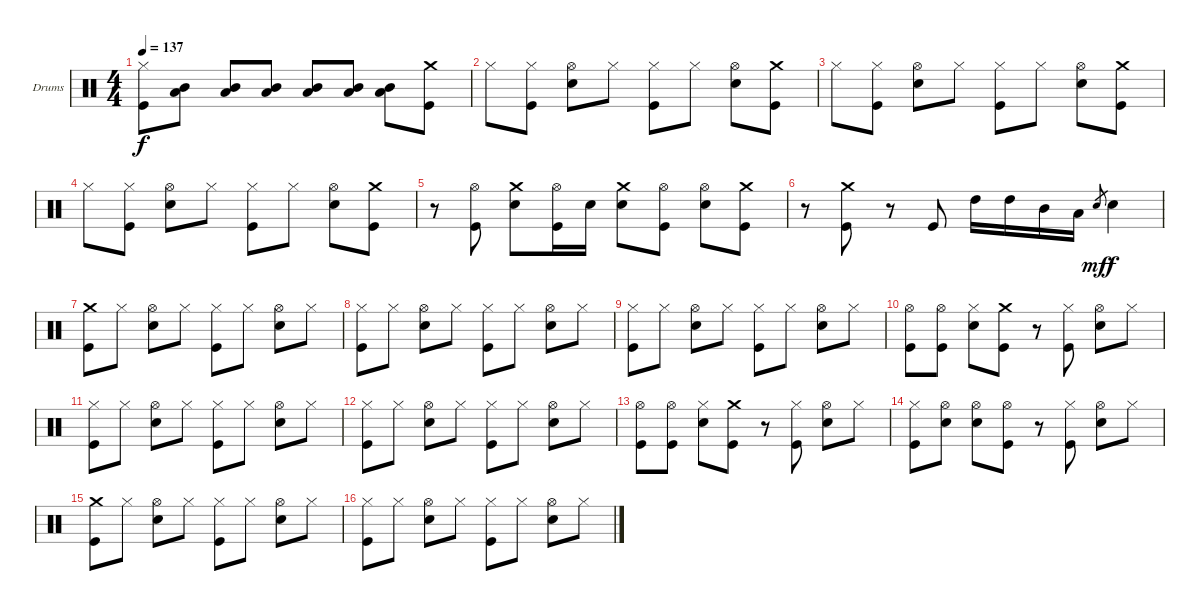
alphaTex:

\defaultSystemsLayout 4
\bracketExtendMode nobrackets
\firstSystemTrackNameOrientation horizontal
\otherSystemsTrackNameOrientation horizontal
\track ("Ударные" "Drums") {instrument percussion}
\staff {score}
\articulation defaults
\ts (4 4)
\tempo 137
\clef neutral
\ks c
("Hi-Hat (closed)" "Kick (hit)").8{dy f} ("Mid Tom (hit)" "Low Tom (hit)").8 ("Mid Tom (hit)" "Low Tom (hit)").8 ("Mid Tom (hit)" "Low Tom (hit)").8 ("Mid Tom (hit)" "Low Tom (hit)").8 ("Mid Tom (hit)" "Low Tom (hit)").8 ("Mid Tom (hit)" "Low Tom (hit)").8 ("Crash medium (hit)" "Kick (hit)").8 |
"Hi-Hat (closed)".8 ("Hi-Hat (closed)" "Kick (hit)").8 ("Hi-Hat (open)" "Snare (hit) 2").8 "Hi-Hat (closed)".8 ("Hi-Hat (closed)" "Kick (hit)").8 "Hi-Hat (closed)".8 ("Hi-Hat (open)" "Snare (hit) 2").8 ("Crash medium (hit)" "Kick (hit)").8 |
"Hi-Hat (closed)".8 ("Hi-Hat (closed)" "Kick (hit)").8 ("Hi-Hat (open)" "Snare (hit) 2").8 "Hi-Hat (closed)".8 ("Hi-Hat (closed)" "Kick (hit)").8 "Hi-Hat (closed)".8 ("Hi-Hat (open)" "Snare (hit) 2").8 ("Crash medium (hit)" "Kick (hit)").8 |
"Hi-Hat (closed)".8 ("Hi-Hat (closed)" "Kick (hit)").8 ("Hi-Hat (open)" "Snare (hit) 2").8 "Hi-Hat (closed)".8 ("Hi-Hat (closed)" "Kick (hit)").8 "Hi-Hat (closed)".8 ("Hi-Hat (open)" "Snare (hit) 2").8 ("Crash medium (hit)" "Kick (hit)").8 |
r.8 ("Hi-Hat (open)" "Kick (hit)").8 ("Crash medium (hit)" "Snare (hit) 2").8 ("Hi-Hat (open)" "Kick (hit)").16 "Snare (hit) 2".16 ("Crash medium (hit)" "Snare (hit) 2").8 ("Hi-Hat (open)" "Kick (hit)").8 ("Hi-Hat (open)" "Snare (hit) 2").8 ("Crash medium (hit)" "Kick (hit)").8 |
r.8 ("Crash medium (hit)" "Kick (hit)").8 r.8 "Kick (hit)".8 "High Tom (hit)".16 "High Tom (hit)".16 "Mid Tom (hit)".16 "Low Tom (hit)".16 "Snare (hit) 2".8{gr dy mf} "Snare (hit) 2".4{dy f} |
("Crash medium (hit)" "Kick (hit)").8 "Hi-Hat (closed)".8 ("Hi-Hat (open)" "Snare (hit) 2").8 "Hi-Hat (closed)".8 ("Hi-Hat (closed)" "Kick (hit)").8 "Hi-Hat (closed)".8 ("Hi-Hat (open)" "Snare (hit) 2").8 "Hi-Hat (closed)".8 |
("Hi-Hat (closed)" "Kick (hit)").8 "Hi-Hat (closed)".8 ("Hi-Hat (open)" "Snare (hit) 2").8 "Hi-Hat (closed)".8 ("Hi-Hat (closed)" "Kick (hit)").8 "Hi-Hat (closed)".8 ("Hi-Hat (open)" "Snare (hit) 2").8 "Hi-Hat (closed)".8 |
("Hi-Hat (closed)" "Kick (hit)").8 "Hi-Hat (closed)".8 ("Hi-Hat (open)" "Snare (hit) 2").8 "Hi-Hat (closed)".8 ("Hi-Hat (closed)" "Kick (hit)").8 "Hi-Hat (closed)".8 ("Hi-Hat (open)" "Snare (hit) 2").8 "Hi-Hat (closed)".8 |
("Hi-Hat (open)" "Kick (hit)").8 ("Hi-Hat (open)" "Kick (hit)").8 ("Hi-Hat (closed)" "Snare (hit) 2").8 ("Crash medium (hit)" "Kick (hit)").8 r.8 ("Hi-Hat (closed)" "Kick (hit)").8 ("Hi-Hat (open)" "Snare (hit) 2").8 "Hi-Hat (closed)".8 |
("Hi-Hat (closed)" "Kick (hit)").8 "Hi-Hat (closed)".8 ("Hi-Hat (open)" "Snare (hit) 2").8 "Hi-Hat (closed)".8 ("Hi-Hat (closed)" "Kick (hit)").8 "Hi-Hat (closed)".8 ("Hi-Hat (open)" "Snare (hit) 2").8 "Hi-Hat (closed)".8 |
("Hi-Hat (closed)" "Kick (hit)").8 "Hi-Hat (closed)".8 ("Hi-Hat (open)" "Snare (hit) 2").8 "Hi-Hat (closed)".8 ("Hi-Hat (closed)" "Kick (hit)").8 "Hi-Hat (closed)".8 ("Hi-Hat (open)" "Snare (hit) 2").8 "Hi-Hat (closed)".8 |
("Hi-Hat (open)" "Kick (hit)").8 ("Hi-Hat (open)" "Kick (hit)").8 ("Hi-Hat (closed)" "Snare (hit) 2").8 ("Crash medium (hit)" "Kick (hit)").8 r.8 ("Hi-Hat (closed)" "Kick (hit)").8 ("Hi-Hat (open)" "Snare (hit) 2").8 "Hi-Hat (closed)".8 |
("Hi-Hat (closed)" "Kick (hit)").8 ("Hi-Hat (open)" "Snare (hit) 2").8 ("Hi-Hat (open)" "Snare (hit) 2").8 ("Hi-Hat (open)" "Kick (hit)").8 r.8 ("Hi-Hat (closed)" "Kick (hit)").8 ("Hi-Hat (open)" "Snare (hit) 2").8 "Hi-Hat (closed)".8 |
("Crash medium (hit)" "Kick (hit)").8 "Hi-Hat (closed)".8 ("Hi-Hat (open)" "Snare (hit) 2").8 "Hi-Hat (closed)".8 ("Hi-Hat (closed)" "Kick (hit)").8 "Hi-Hat (closed)".8 ("Hi-Hat (open)" "Snare (hit) 2").8 "Hi-Hat (closed)".8 |
("Hi-Hat (closed)" "Kick (hit)").8 "Hi-Hat (closed)".8 ("Hi-Hat (open)" "Snare (hit) 2").8 "Hi-Hat (closed)".8 ("Hi-Hat (closed)" "Kick (hit)").8 "Hi-Hat (closed)".8 ("Hi-Hat (open)" "Snare (hit) 2").8 "Hi-Hat (closed)".8
